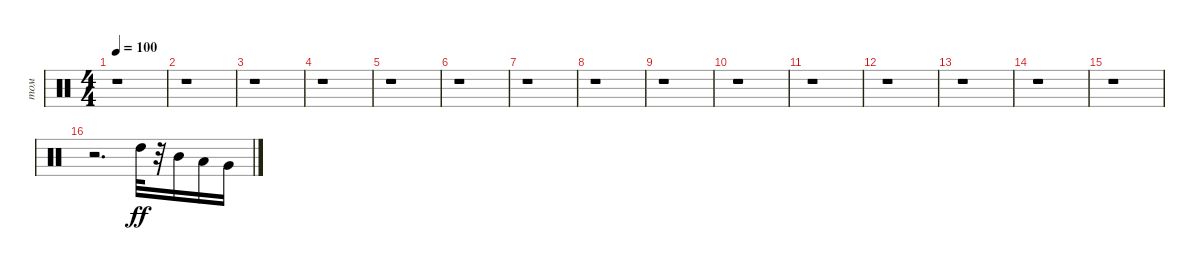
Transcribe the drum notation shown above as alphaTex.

\track ("том" "том") {instrument percussion}
\staff {score}
\articulation defaults
\ts (4 4)
\tempo 100
\clef neutral
\ks c
r.1{dy ff} |
r.1 |
r.1 |
r.1 |
r.1 |
r.1 |
r.1 |
r.1 |
r.1 |
r.1 |
r.1 |
r.1 |
r.1 |
r.1 |
r.1 |
r.2{d} "High Tom (hit)".32 r.32 "Mid Tom (hit)".16 "Low Tom (hit)".16 "Very Low Tom (hit)".16
